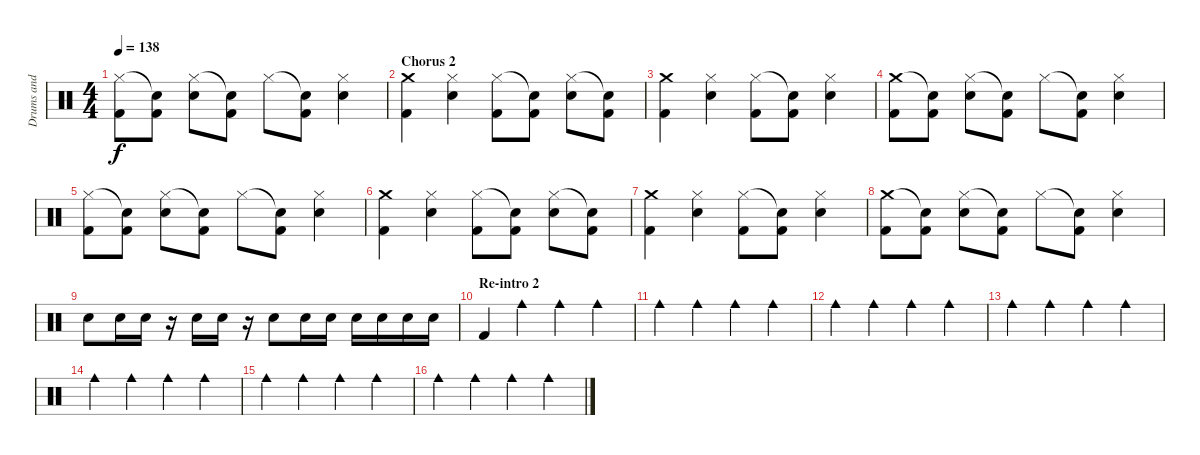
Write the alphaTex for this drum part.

\track ("Drums and Percussion" "Drums and ") {instrument percussion}
\staff {score}
\articulation defaults
\ts (4 4)
\tempo 138
\clef neutral
\ks c
("Hi-Hat (closed)" "Kick (hit) 2").8{dy f} ("Snare (hit)"{t} "Kick (hit) 2").8 ("Hi-Hat (closed)" "Electric Snare (hit)").8 ("Snare (hit)"{t} "Kick (hit) 2").8 "Hi-Hat (closed)".8 ("Snare (hit)"{t} "Kick (hit) 2").8 ("Hi-Hat (closed)" "Electric Snare (hit)").4 |
\section ("" "Chorus 2")
("Crash medium (hit)" "Kick (hit) 2").4 ("Hi-Hat (closed)" "Electric Snare (hit)").4 ("Hi-Hat (closed)" "Kick (hit) 2").8 ("Snare (hit)"{t} "Kick (hit) 2").8 ("Hi-Hat (closed)" "Electric Snare (hit)").8 ("Snare (hit)"{t} "Kick (hit) 2").8 |
("Crash medium (hit)" "Kick (hit) 2").4 ("Hi-Hat (closed)" "Electric Snare (hit)").4 ("Hi-Hat (closed)" "Kick (hit) 2").8 ("Snare (hit)"{t} "Kick (hit) 2").8 ("Hi-Hat (closed)" "Electric Snare (hit)").4 |
("Crash medium (hit)" "Kick (hit) 2").8 ("Snare (hit)"{t} "Kick (hit) 2").8 ("Hi-Hat (closed)" "Electric Snare (hit)").8 ("Snare (hit)"{t} "Kick (hit) 2").8 "Hi-Hat (closed)".8 ("Snare (hit)"{t} "Kick (hit) 2").8 ("Hi-Hat (closed)" "Electric Snare (hit)").4 |
("Hi-Hat (closed)" "Kick (hit) 2").8 ("Snare (hit)"{t} "Kick (hit) 2").8 ("Hi-Hat (closed)" "Electric Snare (hit)").8 ("Snare (hit)"{t} "Kick (hit) 2").8 "Hi-Hat (closed)".8 ("Snare (hit)"{t} "Kick (hit) 2").8 ("Hi-Hat (closed)" "Electric Snare (hit)").4 |
("Crash medium (hit)" "Kick (hit) 2").4 ("Hi-Hat (closed)" "Electric Snare (hit)").4 ("Hi-Hat (closed)" "Kick (hit) 2").8 ("Snare (hit)"{t} "Kick (hit) 2").8 ("Hi-Hat (closed)" "Electric Snare (hit)").8 ("Snare (hit)"{t} "Kick (hit) 2").8 |
("Crash medium (hit)" "Kick (hit) 2").4 ("Hi-Hat (closed)" "Electric Snare (hit)").4 ("Hi-Hat (closed)" "Kick (hit) 2").8 ("Snare (hit)"{t} "Kick (hit) 2").8 ("Hi-Hat (closed)" "Electric Snare (hit)").4 |
("Crash medium (hit)" "Kick (hit) 2").8 ("Snare (hit)"{t} "Kick (hit) 2").8 ("Hi-Hat (closed)" "Electric Snare (hit)").8 ("Snare (hit)"{t} "Kick (hit) 2").8 "Hi-Hat (closed)".8 ("Snare (hit)"{t} "Kick (hit) 2").8 ("Hi-Hat (closed)" "Electric Snare (hit)").4 |
"Electric Snare (hit)".8 "Electric Snare (hit)".16 "Electric Snare (hit)".16 r.16 "Electric Snare (hit)".16 "Electric Snare (hit)".16 r.16 "Electric Snare (hit)".8 "Electric Snare (hit)".16 "Electric Snare (hit)".16 "Electric Snare (hit)".16 "Electric Snare (hit)".16 "Electric Snare (hit)".16 "Electric Snare (hit)".16 |
\section ("" "Re-intro 2")
"Kick (hit) 2".4 "Cowbell medium (hit)".4 "Cowbell medium (hit)".4 "Cowbell medium (hit)".4 |
"Cowbell medium (hit)".4 "Cowbell medium (hit)".4 "Cowbell medium (hit)".4 "Cowbell medium (hit)".4 |
"Cowbell medium (hit)".4 "Cowbell medium (hit)".4 "Cowbell medium (hit)".4 "Cowbell medium (hit)".4 |
"Cowbell medium (hit)".4 "Cowbell medium (hit)".4 "Cowbell medium (hit)".4 "Cowbell medium (hit)".4 |
"Cowbell medium (hit)".4 "Cowbell medium (hit)".4 "Cowbell medium (hit)".4 "Cowbell medium (hit)".4 |
"Cowbell medium (hit)".4 "Cowbell medium (hit)".4 "Cowbell medium (hit)".4 "Cowbell medium (hit)".4 |
"Cowbell medium (hit)".4 "Cowbell medium (hit)".4 "Cowbell medium (hit)".4 "Cowbell medium (hit)".4
